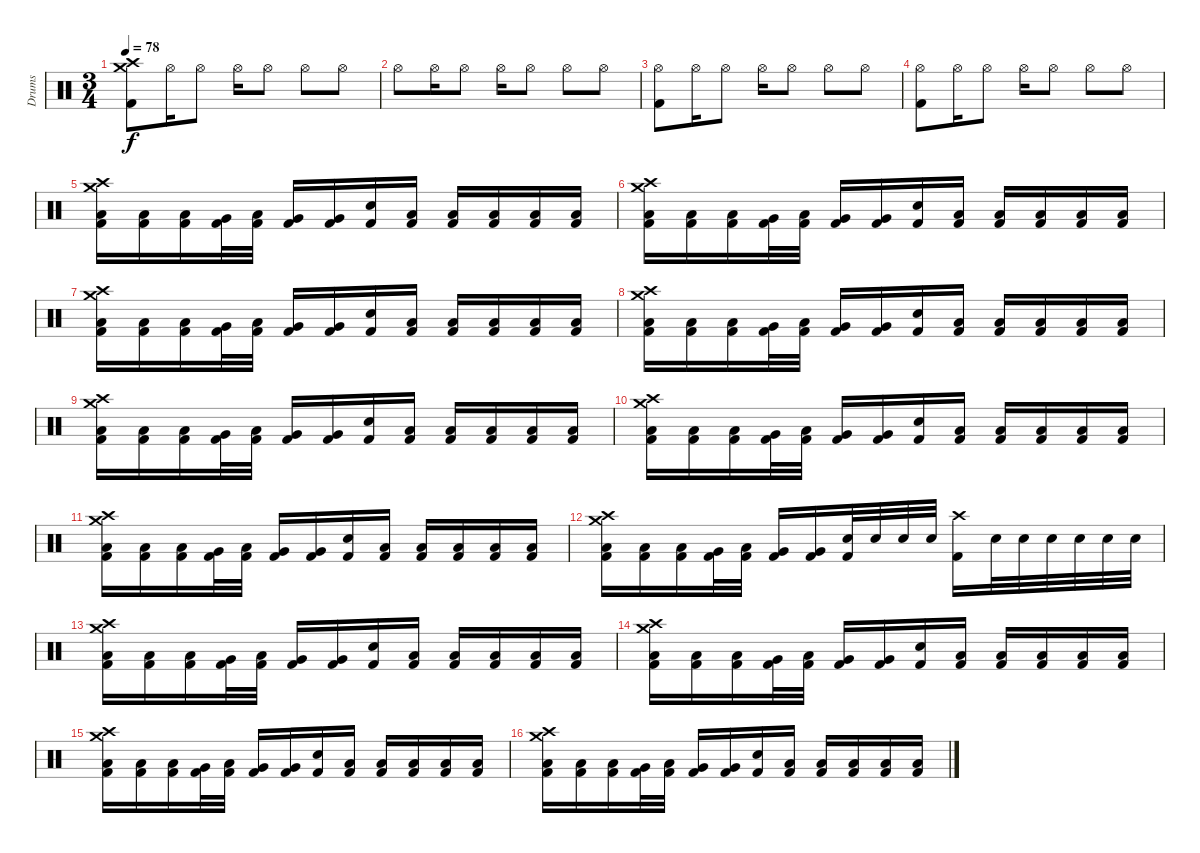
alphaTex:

\track ("Drums" "Drums") {instrument percussion}
\staff {score}
\articulation defaults
\ts (3 4)
\tempo 78
\clef neutral
\ks c
("Crash medium (hit)" "Crash high (hit)" "Kick (hit) 2").8{dy f} "Hi-Hat (open)".16 "Hi-Hat (open)".8 "Hi-Hat (open)".16 "Hi-Hat (open)".8 "Hi-Hat (open)".8 "Hi-Hat (open)".8 |
"Hi-Hat (open)".8 "Hi-Hat (open)".16 "Hi-Hat (open)".8 "Hi-Hat (open)".16 "Hi-Hat (open)".8 "Hi-Hat (open)".8 "Hi-Hat (open)".8 |
("Hi-Hat (open)" "Kick (hit) 2").8 "Hi-Hat (open)".16 "Hi-Hat (open)".8 "Hi-Hat (open)".16 "Hi-Hat (open)".8 "Hi-Hat (open)".8 "Hi-Hat (open)".8 |
("Hi-Hat (open)" "Kick (hit) 2").8 "Hi-Hat (open)".16 "Hi-Hat (open)".8 "Hi-Hat (open)".16 "Hi-Hat (open)".8 "Hi-Hat (open)".8 "Hi-Hat (open)".8 |
("Crash medium (hit)" "Crash high (hit)" "Low Floor Tom (hit)" "Kick (hit) 2").16 ("Low Floor Tom (hit)" "Kick (hit) 2").16 ("Low Floor Tom (hit)" "Kick (hit) 2").16 ("Very Low Tom (hit)" "Kick (hit) 2").32 ("Low Floor Tom (hit)" "Kick (hit) 2").32 ("Very Low Tom (hit)" "Kick (hit) 2").16 ("Very Low Tom (hit)" "Kick (hit) 2").16 ("Snare (hit) 2" "Kick (hit) 2").16 ("Low Floor Tom (hit)" "Kick (hit) 2").16 ("Low Floor Tom (hit)" "Kick (hit) 2").16 ("Low Floor Tom (hit)" "Kick (hit) 2").16 ("Low Floor Tom (hit)" "Kick (hit) 2").16 ("Low Floor Tom (hit)" "Kick (hit) 2").16 |
("Crash medium (hit)" "Crash high (hit)" "Low Floor Tom (hit)" "Kick (hit) 2").16 ("Low Floor Tom (hit)" "Kick (hit) 2").16 ("Low Floor Tom (hit)" "Kick (hit) 2").16 ("Very Low Tom (hit)" "Kick (hit) 2").32 ("Low Floor Tom (hit)" "Kick (hit) 2").32 ("Very Low Tom (hit)" "Kick (hit) 2").16 ("Very Low Tom (hit)" "Kick (hit) 2").16 ("Snare (hit) 2" "Kick (hit) 2").16 ("Low Floor Tom (hit)" "Kick (hit) 2").16 ("Low Floor Tom (hit)" "Kick (hit) 2").16 ("Low Floor Tom (hit)" "Kick (hit) 2").16 ("Low Floor Tom (hit)" "Kick (hit) 2").16 ("Low Floor Tom (hit)" "Kick (hit) 2").16 |
("Crash medium (hit)" "Crash high (hit)" "Low Floor Tom (hit)" "Kick (hit) 2").16 ("Low Floor Tom (hit)" "Kick (hit) 2").16 ("Low Floor Tom (hit)" "Kick (hit) 2").16 ("Very Low Tom (hit)" "Kick (hit) 2").32 ("Low Floor Tom (hit)" "Kick (hit) 2").32 ("Very Low Tom (hit)" "Kick (hit) 2").16 ("Very Low Tom (hit)" "Kick (hit) 2").16 ("Snare (hit) 2" "Kick (hit) 2").16 ("Low Floor Tom (hit)" "Kick (hit) 2").16 ("Low Floor Tom (hit)" "Kick (hit) 2").16 ("Low Floor Tom (hit)" "Kick (hit) 2").16 ("Low Floor Tom (hit)" "Kick (hit) 2").16 ("Low Floor Tom (hit)" "Kick (hit) 2").16 |
("Crash medium (hit)" "Crash high (hit)" "Low Floor Tom (hit)" "Kick (hit) 2").16 ("Low Floor Tom (hit)" "Kick (hit) 2").16 ("Low Floor Tom (hit)" "Kick (hit) 2").16 ("Very Low Tom (hit)" "Kick (hit) 2").32 ("Low Floor Tom (hit)" "Kick (hit) 2").32 ("Very Low Tom (hit)" "Kick (hit) 2").16 ("Very Low Tom (hit)" "Kick (hit) 2").16 ("Snare (hit) 2" "Kick (hit) 2").16 ("Low Floor Tom (hit)" "Kick (hit) 2").16 ("Low Floor Tom (hit)" "Kick (hit) 2").16 ("Low Floor Tom (hit)" "Kick (hit) 2").16 ("Low Floor Tom (hit)" "Kick (hit) 2").16 ("Low Floor Tom (hit)" "Kick (hit) 2").16 |
("Crash medium (hit)" "Crash high (hit)" "Low Floor Tom (hit)" "Kick (hit) 2").16 ("Low Floor Tom (hit)" "Kick (hit) 2").16 ("Low Floor Tom (hit)" "Kick (hit) 2").16 ("Very Low Tom (hit)" "Kick (hit) 2").32 ("Low Floor Tom (hit)" "Kick (hit) 2").32 ("Very Low Tom (hit)" "Kick (hit) 2").16 ("Very Low Tom (hit)" "Kick (hit) 2").16 ("Snare (hit) 2" "Kick (hit) 2").16 ("Low Floor Tom (hit)" "Kick (hit) 2").16 ("Low Floor Tom (hit)" "Kick (hit) 2").16 ("Low Floor Tom (hit)" "Kick (hit) 2").16 ("Low Floor Tom (hit)" "Kick (hit) 2").16 ("Low Floor Tom (hit)" "Kick (hit) 2").16 |
("Crash medium (hit)" "Crash high (hit)" "Low Floor Tom (hit)" "Kick (hit) 2").16 ("Low Floor Tom (hit)" "Kick (hit) 2").16 ("Low Floor Tom (hit)" "Kick (hit) 2").16 ("Very Low Tom (hit)" "Kick (hit) 2").32 ("Low Floor Tom (hit)" "Kick (hit) 2").32 ("Very Low Tom (hit)" "Kick (hit) 2").16 ("Very Low Tom (hit)" "Kick (hit) 2").16 ("Snare (hit) 2" "Kick (hit) 2").16 ("Low Floor Tom (hit)" "Kick (hit) 2").16 ("Low Floor Tom (hit)" "Kick (hit) 2").16 ("Low Floor Tom (hit)" "Kick (hit) 2").16 ("Low Floor Tom (hit)" "Kick (hit) 2").16 ("Low Floor Tom (hit)" "Kick (hit) 2").16 |
("Crash medium (hit)" "Crash high (hit)" "Low Floor Tom (hit)" "Kick (hit) 2").16 ("Low Floor Tom (hit)" "Kick (hit) 2").16 ("Low Floor Tom (hit)" "Kick (hit) 2").16 ("Very Low Tom (hit)" "Kick (hit) 2").32 ("Low Floor Tom (hit)" "Kick (hit) 2").32 ("Very Low Tom (hit)" "Kick (hit) 2").16 ("Very Low Tom (hit)" "Kick (hit) 2").16 ("Snare (hit) 2" "Kick (hit) 2").16 ("Low Floor Tom (hit)" "Kick (hit) 2").16 ("Low Floor Tom (hit)" "Kick (hit) 2").16 ("Low Floor Tom (hit)" "Kick (hit) 2").16 ("Low Floor Tom (hit)" "Kick (hit) 2").16 ("Low Floor Tom (hit)" "Kick (hit) 2").16 |
("Crash medium (hit)" "Crash high (hit)" "Low Floor Tom (hit)" "Kick (hit) 2").16 ("Low Floor Tom (hit)" "Kick (hit) 2").16 ("Low Floor Tom (hit)" "Kick (hit) 2").16 ("Very Low Tom (hit)" "Kick (hit) 2").32 ("Low Floor Tom (hit)" "Kick (hit) 2").32 ("Very Low Tom (hit)" "Kick (hit) 2").16 ("Very Low Tom (hit)" "Kick (hit) 2").16 ("Snare (hit) 2" "Kick (hit) 2").32 "Snare (hit) 2".32 "Snare (hit) 2".32 "Snare (hit) 2".32 ("Crash high (hit)" "Kick (hit) 2").16 "Snare (hit) 2".32 "Snare (hit) 2".32 "Snare (hit) 2".32 "Snare (hit) 2".32 "Snare (hit) 2".32 "Snare (hit) 2".32 |
("Crash medium (hit)" "Crash high (hit)" "Low Floor Tom (hit)" "Kick (hit) 2").16 ("Low Floor Tom (hit)" "Kick (hit) 2").16 ("Low Floor Tom (hit)" "Kick (hit) 2").16 ("Very Low Tom (hit)" "Kick (hit) 2").32 ("Low Floor Tom (hit)" "Kick (hit) 2").32 ("Very Low Tom (hit)" "Kick (hit) 2").16 ("Very Low Tom (hit)" "Kick (hit) 2").16 ("Snare (hit) 2" "Kick (hit) 2").16 ("Low Floor Tom (hit)" "Kick (hit) 2").16 ("Low Floor Tom (hit)" "Kick (hit) 2").16 ("Low Floor Tom (hit)" "Kick (hit) 2").16 ("Low Floor Tom (hit)" "Kick (hit) 2").16 ("Low Floor Tom (hit)" "Kick (hit) 2").16 |
("Crash medium (hit)" "Crash high (hit)" "Low Floor Tom (hit)" "Kick (hit) 2").16 ("Low Floor Tom (hit)" "Kick (hit) 2").16 ("Low Floor Tom (hit)" "Kick (hit) 2").16 ("Very Low Tom (hit)" "Kick (hit) 2").32 ("Low Floor Tom (hit)" "Kick (hit) 2").32 ("Very Low Tom (hit)" "Kick (hit) 2").16 ("Very Low Tom (hit)" "Kick (hit) 2").16 ("Snare (hit) 2" "Kick (hit) 2").16 ("Low Floor Tom (hit)" "Kick (hit) 2").16 ("Low Floor Tom (hit)" "Kick (hit) 2").16 ("Low Floor Tom (hit)" "Kick (hit) 2").16 ("Low Floor Tom (hit)" "Kick (hit) 2").16 ("Low Floor Tom (hit)" "Kick (hit) 2").16 |
("Crash medium (hit)" "Crash high (hit)" "Low Floor Tom (hit)" "Kick (hit) 2").16 ("Low Floor Tom (hit)" "Kick (hit) 2").16 ("Low Floor Tom (hit)" "Kick (hit) 2").16 ("Very Low Tom (hit)" "Kick (hit) 2").32 ("Low Floor Tom (hit)" "Kick (hit) 2").32 ("Very Low Tom (hit)" "Kick (hit) 2").16 ("Very Low Tom (hit)" "Kick (hit) 2").16 ("Snare (hit) 2" "Kick (hit) 2").16 ("Low Floor Tom (hit)" "Kick (hit) 2").16 ("Low Floor Tom (hit)" "Kick (hit) 2").16 ("Low Floor Tom (hit)" "Kick (hit) 2").16 ("Low Floor Tom (hit)" "Kick (hit) 2").16 ("Low Floor Tom (hit)" "Kick (hit) 2").16 |
("Crash medium (hit)" "Crash high (hit)" "Low Floor Tom (hit)" "Kick (hit) 2").16 ("Low Floor Tom (hit)" "Kick (hit) 2").16 ("Low Floor Tom (hit)" "Kick (hit) 2").16 ("Very Low Tom (hit)" "Kick (hit) 2").32 ("Low Floor Tom (hit)" "Kick (hit) 2").32 ("Very Low Tom (hit)" "Kick (hit) 2").16 ("Very Low Tom (hit)" "Kick (hit) 2").16 ("Snare (hit) 2" "Kick (hit) 2").16 ("Low Floor Tom (hit)" "Kick (hit) 2").16 ("Low Floor Tom (hit)" "Kick (hit) 2").16 ("Low Floor Tom (hit)" "Kick (hit) 2").16 ("Low Floor Tom (hit)" "Kick (hit) 2").16 ("Low Floor Tom (hit)" "Kick (hit) 2").16
